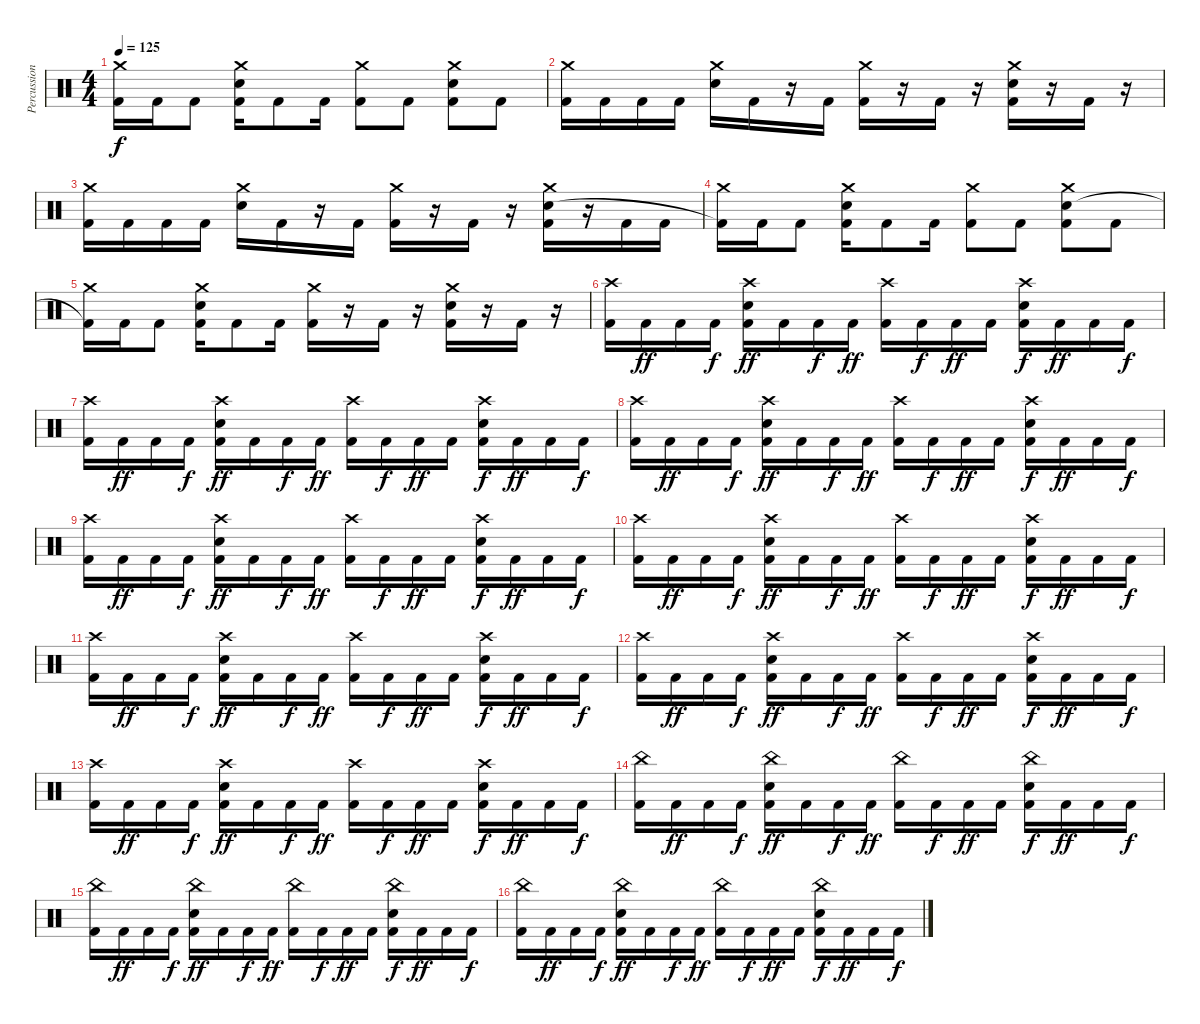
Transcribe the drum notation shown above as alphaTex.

\track ("Percussion" "Percussion") {instrument percussion}
\staff {score}
\articulation defaults
\ts (4 4)
\tempo 125
\clef neutral
\ks c
("Crash medium (hit)" "Kick (hit) 2"{t}).16{dy f} "Kick (hit) 2".16 "Kick (hit) 2".8 ("Crash medium (hit)" "Electric Snare (hit)" "Kick (hit) 2").16 "Kick (hit) 2".8 "Kick (hit) 2".16 ("Crash medium (hit)" "Kick (hit) 2").8 "Kick (hit) 2".8 ("Crash medium (hit)" "Electric Snare (hit)" "Kick (hit) 2").8 "Kick (hit) 2".8 |
("Crash medium (hit)" "Kick (hit) 2").16 "Kick (hit) 2".16 "Kick (hit) 2".16 "Kick (hit) 2".16 ("Crash medium (hit)" "Electric Snare (hit)").16 "Kick (hit) 2".16 r.16 "Kick (hit) 2".16 ("Crash medium (hit)" "Kick (hit) 2").16 r.16 "Kick (hit) 2".16 r.16 ("Crash medium (hit)" "Electric Snare (hit)" "Kick (hit) 2").16 r.16 "Kick (hit) 2".16 r.16 |
("Crash medium (hit)" "Kick (hit) 2").16 "Kick (hit) 2".16 "Kick (hit) 2".16 "Kick (hit) 2".16 ("Crash medium (hit)" "Electric Snare (hit)").16 "Kick (hit) 2".16 r.16 "Kick (hit) 2".16 ("Crash medium (hit)" "Kick (hit) 2").16 r.16 "Kick (hit) 2".16 r.16 ("Crash medium (hit)" "Electric Snare (hit)" "Kick (hit) 2").16 r.16 "Kick (hit) 2".16 "Kick (hit) 2".16 |
("Crash medium (hit)" "Kick (hit) 2"{t}).16 "Kick (hit) 2".16 "Kick (hit) 2".8 ("Crash medium (hit)" "Electric Snare (hit)" "Kick (hit) 2").16 "Kick (hit) 2".8 "Kick (hit) 2".16 ("Crash medium (hit)" "Kick (hit) 2").8 "Kick (hit) 2".8 ("Crash medium (hit)" "Electric Snare (hit)" "Kick (hit) 2").8 "Kick (hit) 2".8 |
("Crash medium (hit)" "Kick (hit) 2"{t}).16 "Kick (hit) 2".16 "Kick (hit) 2".8 ("Crash medium (hit)" "Electric Snare (hit)" "Kick (hit) 2").16 "Kick (hit) 2".8 "Kick (hit) 2".16 ("Crash medium (hit)" "Kick (hit) 2").16 r.16 "Kick (hit) 2".16 r.16 ("Crash medium (hit)" "Electric Snare (hit)" "Kick (hit) 2").16 r.16 "Kick (hit) 2".16 r.16 |
("Crash high (hit)" "Kick (hit) 2").16 "Kick (hit) 2".16{dy ff} "Kick (hit) 2".16 "Kick (hit) 2".16{dy f} ("Crash high (hit)" "Electric Snare (hit)" "Kick (hit) 2").16{dy ff} "Kick (hit) 2".16 "Kick (hit) 2".16{dy f} "Kick (hit) 2".16{dy ff} ("Crash high (hit)" "Kick (hit) 2").16 "Kick (hit) 2".16{dy f} "Kick (hit) 2".16{dy ff} "Kick (hit) 2".16 ("Crash high (hit)" "Electric Snare (hit)" "Kick (hit) 2").16{dy f} "Kick (hit) 2".16{dy ff} "Kick (hit) 2".16 "Kick (hit) 2".16{dy f} |
("Crash high (hit)" "Kick (hit) 2").16 "Kick (hit) 2".16{dy ff} "Kick (hit) 2".16 "Kick (hit) 2".16{dy f} ("Crash high (hit)" "Electric Snare (hit)" "Kick (hit) 2").16{dy ff} "Kick (hit) 2".16 "Kick (hit) 2".16{dy f} "Kick (hit) 2".16{dy ff} ("Crash high (hit)" "Kick (hit) 2").16 "Kick (hit) 2".16{dy f} "Kick (hit) 2".16{dy ff} "Kick (hit) 2".16 ("Crash high (hit)" "Electric Snare (hit)" "Kick (hit) 2").16{dy f} "Kick (hit) 2".16{dy ff} "Kick (hit) 2".16 "Kick (hit) 2".16{dy f} |
("Crash high (hit)" "Kick (hit) 2").16 "Kick (hit) 2".16{dy ff} "Kick (hit) 2".16 "Kick (hit) 2".16{dy f} ("Crash high (hit)" "Electric Snare (hit)" "Kick (hit) 2").16{dy ff} "Kick (hit) 2".16 "Kick (hit) 2".16{dy f} "Kick (hit) 2".16{dy ff} ("Crash high (hit)" "Kick (hit) 2").16 "Kick (hit) 2".16{dy f} "Kick (hit) 2".16{dy ff} "Kick (hit) 2".16 ("Crash high (hit)" "Electric Snare (hit)" "Kick (hit) 2").16{dy f} "Kick (hit) 2".16{dy ff} "Kick (hit) 2".16 "Kick (hit) 2".16{dy f} |
("Crash high (hit)" "Kick (hit) 2").16 "Kick (hit) 2".16{dy ff} "Kick (hit) 2".16 "Kick (hit) 2".16{dy f} ("Crash high (hit)" "Electric Snare (hit)" "Kick (hit) 2").16{dy ff} "Kick (hit) 2".16 "Kick (hit) 2".16{dy f} "Kick (hit) 2".16{dy ff} ("Crash high (hit)" "Kick (hit) 2").16 "Kick (hit) 2".16{dy f} "Kick (hit) 2".16{dy ff} "Kick (hit) 2".16 ("Crash high (hit)" "Electric Snare (hit)" "Kick (hit) 2").16{dy f} "Kick (hit) 2".16{dy ff} "Kick (hit) 2".16 "Kick (hit) 2".16{dy f} |
("Crash high (hit)" "Kick (hit) 2").16 "Kick (hit) 2".16{dy ff} "Kick (hit) 2".16 "Kick (hit) 2".16{dy f} ("Crash high (hit)" "Electric Snare (hit)" "Kick (hit) 2").16{dy ff} "Kick (hit) 2".16 "Kick (hit) 2".16{dy f} "Kick (hit) 2".16{dy ff} ("Crash high (hit)" "Kick (hit) 2").16 "Kick (hit) 2".16{dy f} "Kick (hit) 2".16{dy ff} "Kick (hit) 2".16 ("Crash high (hit)" "Electric Snare (hit)" "Kick (hit) 2").16{dy f} "Kick (hit) 2".16{dy ff} "Kick (hit) 2".16 "Kick (hit) 2".16{dy f} |
("Crash high (hit)" "Kick (hit) 2").16 "Kick (hit) 2".16{dy ff} "Kick (hit) 2".16 "Kick (hit) 2".16{dy f} ("Crash high (hit)" "Electric Snare (hit)" "Kick (hit) 2").16{dy ff} "Kick (hit) 2".16 "Kick (hit) 2".16{dy f} "Kick (hit) 2".16{dy ff} ("Crash high (hit)" "Kick (hit) 2").16 "Kick (hit) 2".16{dy f} "Kick (hit) 2".16{dy ff} "Kick (hit) 2".16 ("Crash high (hit)" "Electric Snare (hit)" "Kick (hit) 2").16{dy f} "Kick (hit) 2".16{dy ff} "Kick (hit) 2".16 "Kick (hit) 2".16{dy f} |
("Crash high (hit)" "Kick (hit) 2").16 "Kick (hit) 2".16{dy ff} "Kick (hit) 2".16 "Kick (hit) 2".16{dy f} ("Crash high (hit)" "Electric Snare (hit)" "Kick (hit) 2").16{dy ff} "Kick (hit) 2".16 "Kick (hit) 2".16{dy f} "Kick (hit) 2".16{dy ff} ("Crash high (hit)" "Kick (hit) 2").16 "Kick (hit) 2".16{dy f} "Kick (hit) 2".16{dy ff} "Kick (hit) 2".16 ("Crash high (hit)" "Electric Snare (hit)" "Kick (hit) 2").16{dy f} "Kick (hit) 2".16{dy ff} "Kick (hit) 2".16 "Kick (hit) 2".16{dy f} |
("Crash high (hit)" "Kick (hit) 2").16 "Kick (hit) 2".16{dy ff} "Kick (hit) 2".16 "Kick (hit) 2".16{dy f} ("Crash high (hit)" "Electric Snare (hit)" "Kick (hit) 2").16{dy ff} "Kick (hit) 2".16 "Kick (hit) 2".16{dy f} "Kick (hit) 2".16{dy ff} ("Crash high (hit)" "Kick (hit) 2").16 "Kick (hit) 2".16{dy f} "Kick (hit) 2".16{dy ff} "Kick (hit) 2".16 ("Crash high (hit)" "Electric Snare (hit)" "Kick (hit) 2").16{dy f} "Kick (hit) 2".16{dy ff} "Kick (hit) 2".16 "Kick (hit) 2".16{dy f} |
("China (hit)" "Kick (hit) 2").16 "Kick (hit) 2".16{dy ff} "Kick (hit) 2".16 "Kick (hit) 2".16{dy f} ("China (hit)" "Electric Snare (hit)" "Kick (hit) 2").16{dy ff} "Kick (hit) 2".16 "Kick (hit) 2".16{dy f} "Kick (hit) 2".16{dy ff} ("China (hit)" "Kick (hit) 2").16 "Kick (hit) 2".16{dy f} "Kick (hit) 2".16{dy ff} "Kick (hit) 2".16 ("China (hit)" "Electric Snare (hit)" "Kick (hit) 2").16{dy f} "Kick (hit) 2".16{dy ff} "Kick (hit) 2".16 "Kick (hit) 2".16{dy f} |
("China (hit)" "Kick (hit) 2").16 "Kick (hit) 2".16{dy ff} "Kick (hit) 2".16 "Kick (hit) 2".16{dy f} ("China (hit)" "Electric Snare (hit)" "Kick (hit) 2").16{dy ff} "Kick (hit) 2".16 "Kick (hit) 2".16{dy f} "Kick (hit) 2".16{dy ff} ("China (hit)" "Kick (hit) 2").16 "Kick (hit) 2".16{dy f} "Kick (hit) 2".16{dy ff} "Kick (hit) 2".16 ("China (hit)" "Electric Snare (hit)" "Kick (hit) 2").16{dy f} "Kick (hit) 2".16{dy ff} "Kick (hit) 2".16 "Kick (hit) 2".16{dy f} |
("China (hit)" "Kick (hit) 2").16 "Kick (hit) 2".16{dy ff} "Kick (hit) 2".16 "Kick (hit) 2".16{dy f} ("China (hit)" "Electric Snare (hit)" "Kick (hit) 2").16{dy ff} "Kick (hit) 2".16 "Kick (hit) 2".16{dy f} "Kick (hit) 2".16{dy ff} ("China (hit)" "Kick (hit) 2").16 "Kick (hit) 2".16{dy f} "Kick (hit) 2".16{dy ff} "Kick (hit) 2".16 ("China (hit)" "Electric Snare (hit)" "Kick (hit) 2").16{dy f} "Kick (hit) 2".16{dy ff} "Kick (hit) 2".16 "Kick (hit) 2".16{dy f}
